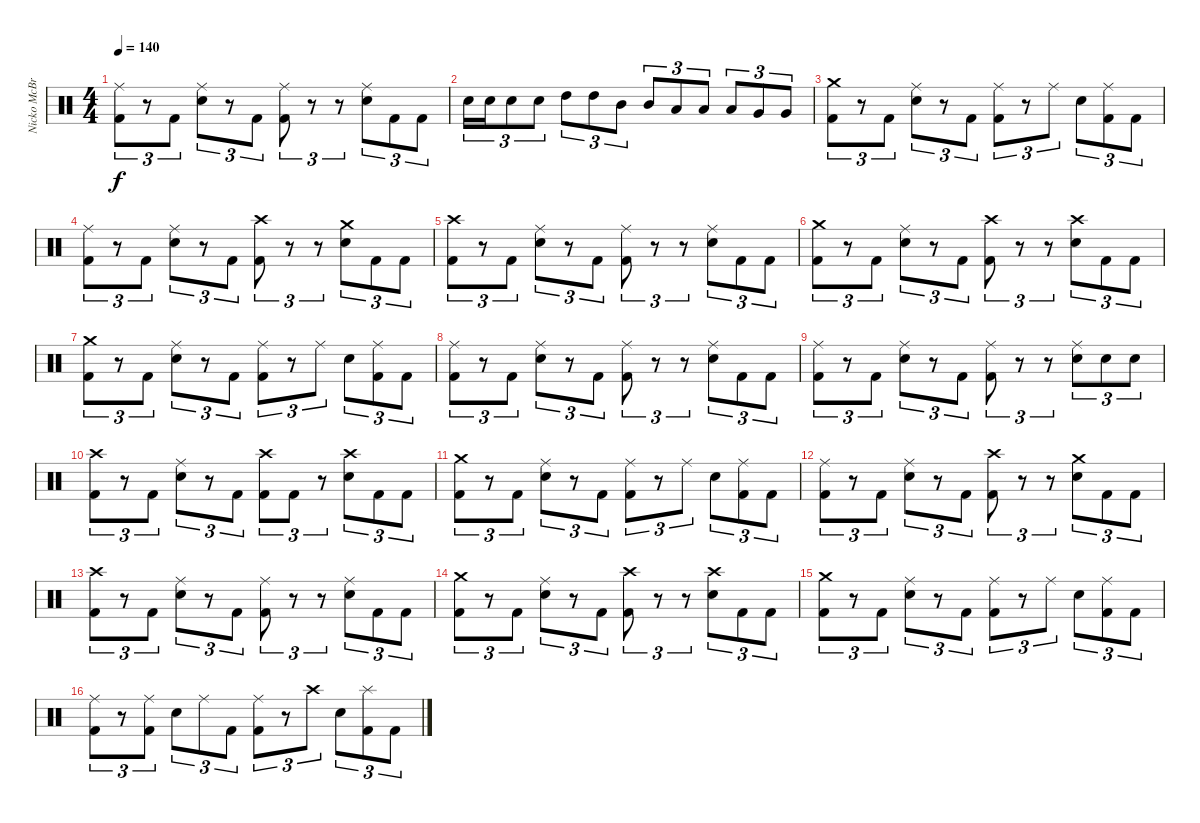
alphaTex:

\track ("Nicko McBrain" "Nicko McBr") {instrument percussion}
\staff {score}
\articulation defaults
\ts (4 4)
\tempo 140
\clef neutral
\ks c
("Ride (middle)" "Kick (hit) 2").8{tu (3 2) dy f} r.8{tu (3 2)} "Kick (hit) 2".8{tu (3 2)} ("Ride (middle)" "Electric Snare (hit)").8{tu (3 2)} r.8{tu (3 2)} "Kick (hit) 2".8{tu (3 2)} ("Ride (middle)" "Kick (hit) 2").8{tu (3 2)} r.8{tu (3 2)} r.8{tu (3 2)} ("Ride (middle)" "Electric Snare (hit)").8{tu (3 2)} "Kick (hit) 2".8{tu (3 2)} "Kick (hit) 2".8{tu (3 2)} |
"Electric Snare (hit)".16{tu (3 2)} "Electric Snare (hit)".16{tu (3 2)} "Electric Snare (hit)".8{tu (3 2)} "Electric Snare (hit)".8{tu (3 2)} "High Tom (hit)".8{tu (3 2)} "High Tom (hit)".8{tu (3 2)} "Mid Tom (hit)".8{tu (3 2)} "Mid Tom (hit)".8{tu (3 2)} "Low Tom (hit)".8{tu (3 2)} "Low Tom (hit)".8{tu (3 2)} "Low Tom (hit)".8{tu (3 2)} "Very Low Tom (hit)".8{tu (3 2)} "Very Low Tom (hit)".8{tu (3 2)} |
("Crash medium (hit)" "Kick (hit) 2").8{tu (3 2)} r.8{tu (3 2)} "Kick (hit) 2".8{tu (3 2)} ("Ride (middle)" "Electric Snare (hit)").8{tu (3 2)} r.8{tu (3 2)} "Kick (hit) 2".8{tu (3 2)} ("Ride (middle)" "Kick (hit) 2").8{tu (3 2)} r.8{tu (3 2)} "Ride (middle)".8{tu (3 2)} "Electric Snare (hit)".8{tu (3 2)} ("Ride (middle)" "Kick (hit) 2").8{tu (3 2)} "Kick (hit) 2".8{tu (3 2)} |
("Ride (middle)" "Kick (hit) 2").8{tu (3 2)} r.8{tu (3 2)} "Kick (hit) 2".8{tu (3 2)} ("Ride (middle)" "Electric Snare (hit)").8{tu (3 2)} r.8{tu (3 2)} "Kick (hit) 2".8{tu (3 2)} ("Crash high (hit)" "Kick (hit) 2").8{tu (3 2)} r.8{tu (3 2)} r.8{tu (3 2)} ("Crash medium (hit)" "Electric Snare (hit)").8{tu (3 2)} "Kick (hit) 2".8{tu (3 2)} "Kick (hit) 2".8{tu (3 2)} |
("Crash high (hit)" "Kick (hit) 2").8{tu (3 2)} r.8{tu (3 2)} "Kick (hit) 2".8{tu (3 2)} ("Ride (middle)" "Electric Snare (hit)").8{tu (3 2)} r.8{tu (3 2)} "Kick (hit) 2".8{tu (3 2)} ("Ride (middle)" "Kick (hit) 2").8{tu (3 2)} r.8{tu (3 2)} r.8{tu (3 2)} ("Ride (middle)" "Electric Snare (hit)").8{tu (3 2)} "Kick (hit) 2".8{tu (3 2)} "Kick (hit) 2".8{tu (3 2)} |
("Crash medium (hit)" "Kick (hit) 2").8{tu (3 2)} r.8{tu (3 2)} "Kick (hit) 2".8{tu (3 2)} ("Ride (middle)" "Electric Snare (hit)").8{tu (3 2)} r.8{tu (3 2)} "Kick (hit) 2".8{tu (3 2)} ("Crash high (hit)" "Kick (hit) 2").8{tu (3 2)} r.8{tu (3 2)} r.8{tu (3 2)} ("Crash high (hit)" "Electric Snare (hit)").8{tu (3 2)} "Kick (hit) 2".8{tu (3 2)} "Kick (hit) 2".8{tu (3 2)} |
("Crash medium (hit)" "Kick (hit) 2").8{tu (3 2)} r.8{tu (3 2)} "Kick (hit) 2".8{tu (3 2)} ("Ride (middle)" "Electric Snare (hit)").8{tu (3 2)} r.8{tu (3 2)} "Kick (hit) 2".8{tu (3 2)} ("Ride (middle)" "Kick (hit) 2").8{tu (3 2)} r.8{tu (3 2)} "Ride (middle)".8{tu (3 2)} "Electric Snare (hit)".8{tu (3 2)} ("Ride (middle)" "Kick (hit) 2").8{tu (3 2)} "Kick (hit) 2".8{tu (3 2)} |
("Ride (middle)" "Kick (hit) 2").8{tu (3 2)} r.8{tu (3 2)} "Kick (hit) 2".8{tu (3 2)} ("Ride (middle)" "Electric Snare (hit)").8{tu (3 2)} r.8{tu (3 2)} "Kick (hit) 2".8{tu (3 2)} ("Ride (middle)" "Kick (hit) 2").8{tu (3 2)} r.8{tu (3 2)} r.8{tu (3 2)} ("Ride (middle)" "Electric Snare (hit)").8{tu (3 2)} "Kick (hit) 2".8{tu (3 2)} "Kick (hit) 2".8{tu (3 2)} |
("Ride (middle)" "Kick (hit) 2").8{tu (3 2)} r.8{tu (3 2)} "Kick (hit) 2".8{tu (3 2)} ("Ride (middle)" "Electric Snare (hit)").8{tu (3 2)} r.8{tu (3 2)} "Kick (hit) 2".8{tu (3 2)} ("Ride (middle)" "Kick (hit) 2").8{tu (3 2)} r.8{tu (3 2)} r.8{tu (3 2)} ("Ride (middle)" "Electric Snare (hit)").8{tu (3 2)} "Electric Snare (hit)".8{tu (3 2)} "Electric Snare (hit)".8{tu (3 2)} |
("Crash high (hit)" "Kick (hit) 2").8{tu (3 2)} r.8{tu (3 2)} "Kick (hit) 2".8{tu (3 2)} ("Ride (middle)" "Electric Snare (hit)").8{tu (3 2)} r.8{tu (3 2)} "Kick (hit) 2".8{tu (3 2)} ("Crash high (hit)" "Kick (hit) 2").8{tu (3 2)} "Kick (hit) 2".8{tu (3 2)} r.8{tu (3 2)} ("Crash high (hit)" "Electric Snare (hit)").8{tu (3 2)} "Kick (hit) 2".8{tu (3 2)} "Kick (hit) 2".8{tu (3 2)} |
("Crash medium (hit)" "Kick (hit) 2").8{tu (3 2)} r.8{tu (3 2)} "Kick (hit) 2".8{tu (3 2)} ("Ride (middle)" "Electric Snare (hit)").8{tu (3 2)} r.8{tu (3 2)} "Kick (hit) 2".8{tu (3 2)} ("Ride (middle)" "Kick (hit) 2").8{tu (3 2)} r.8{tu (3 2)} "Ride (middle)".8{tu (3 2)} "Electric Snare (hit)".8{tu (3 2)} ("Ride (middle)" "Kick (hit) 2").8{tu (3 2)} "Kick (hit) 2".8{tu (3 2)} |
("Ride (middle)" "Kick (hit) 2").8{tu (3 2)} r.8{tu (3 2)} "Kick (hit) 2".8{tu (3 2)} ("Ride (middle)" "Electric Snare (hit)").8{tu (3 2)} r.8{tu (3 2)} "Kick (hit) 2".8{tu (3 2)} ("Crash high (hit)" "Kick (hit) 2").8{tu (3 2)} r.8{tu (3 2)} r.8{tu (3 2)} ("Crash medium (hit)" "Electric Snare (hit)").8{tu (3 2)} "Kick (hit) 2".8{tu (3 2)} "Kick (hit) 2".8{tu (3 2)} |
("Crash high (hit)" "Kick (hit) 2").8{tu (3 2)} r.8{tu (3 2)} "Kick (hit) 2".8{tu (3 2)} ("Ride (middle)" "Electric Snare (hit)").8{tu (3 2)} r.8{tu (3 2)} "Kick (hit) 2".8{tu (3 2)} ("Ride (middle)" "Kick (hit) 2").8{tu (3 2)} r.8{tu (3 2)} r.8{tu (3 2)} ("Ride (middle)" "Electric Snare (hit)").8{tu (3 2)} "Kick (hit) 2".8{tu (3 2)} "Kick (hit) 2".8{tu (3 2)} |
("Crash medium (hit)" "Kick (hit) 2").8{tu (3 2)} r.8{tu (3 2)} "Kick (hit) 2".8{tu (3 2)} ("Ride (middle)" "Electric Snare (hit)").8{tu (3 2)} r.8{tu (3 2)} "Kick (hit) 2".8{tu (3 2)} ("Crash high (hit)" "Kick (hit) 2").8{tu (3 2)} r.8{tu (3 2)} r.8{tu (3 2)} ("Crash high (hit)" "Electric Snare (hit)").8{tu (3 2)} "Kick (hit) 2".8{tu (3 2)} "Kick (hit) 2".8{tu (3 2)} |
("Crash medium (hit)" "Kick (hit) 2").8{tu (3 2)} r.8{tu (3 2)} "Kick (hit) 2".8{tu (3 2)} ("Ride (middle)" "Electric Snare (hit)").8{tu (3 2)} r.8{tu (3 2)} "Kick (hit) 2".8{tu (3 2)} ("Ride (middle)" "Kick (hit) 2").8{tu (3 2)} r.8{tu (3 2)} "Ride (middle)".8{tu (3 2)} "Electric Snare (hit)".8{tu (3 2)} ("Ride (middle)" "Kick (hit) 2").8{tu (3 2)} "Kick (hit) 2".8{tu (3 2)} |
("Ride (middle)" "Kick (hit) 2").8{tu (3 2)} r.8{tu (3 2)} ("Ride (middle)" "Kick (hit) 2").8{tu (3 2)} "Electric Snare (hit)".8{tu (3 2)} "Ride (middle)".8{tu (3 2)} "Kick (hit) 2".8{tu (3 2)} ("Ride (middle)" "Kick (hit) 2").8{tu (3 2)} r.8{tu (3 2)} "Crash high (hit)".8{tu (3 2)} "Electric Snare (hit)".8{tu (3 2)} ("Splash (hit)" "Kick (hit) 2").8{tu (3 2)} "Kick (hit) 2".8{tu (3 2)}
